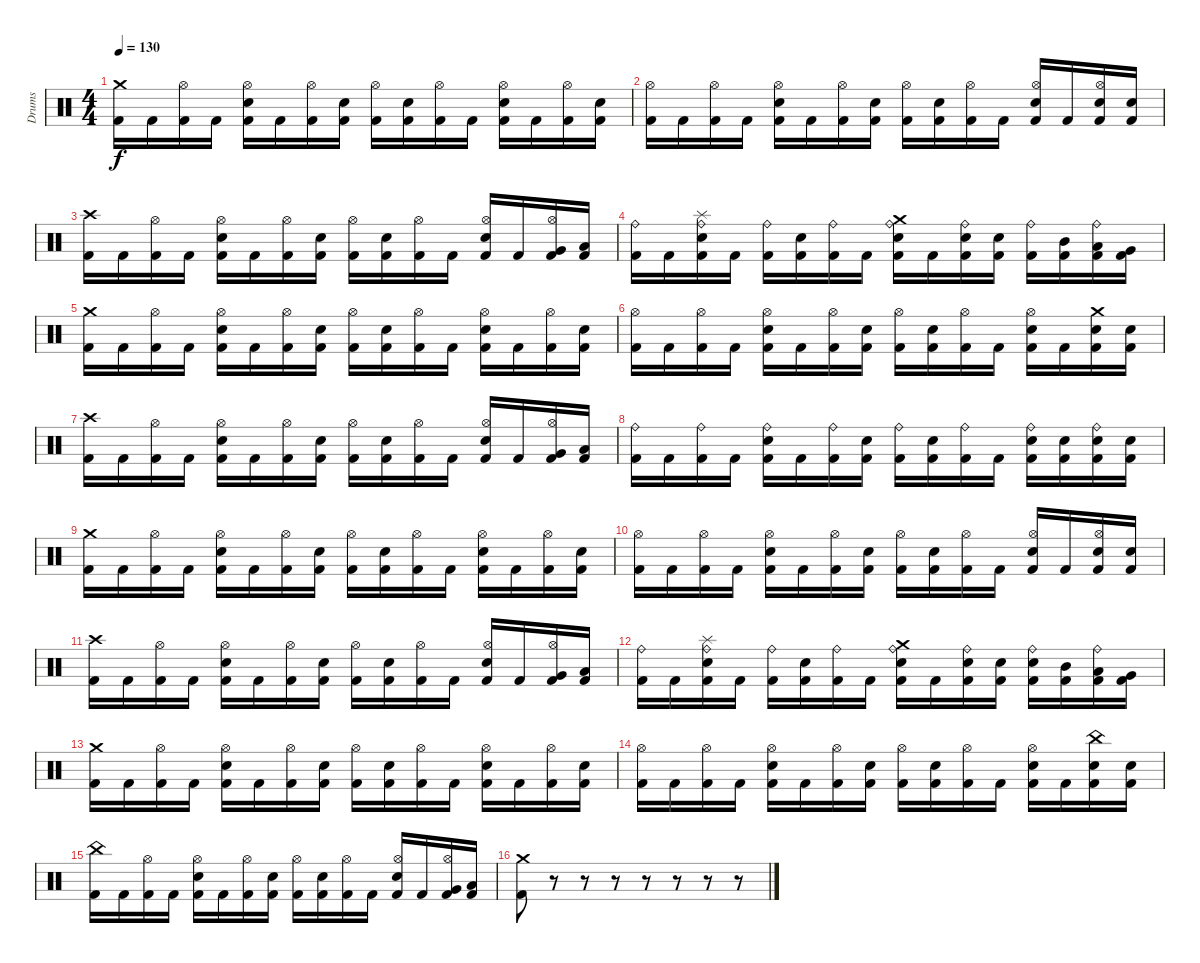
\track ("Drums" "Drums") {instrument percussion}
\staff {score}
\articulation defaults
\ts (4 4)
\tempo 130
\clef neutral
\ks c
("Crash medium (hit)" "Kick (hit) 2").16{dy f} "Kick (hit) 2".16 ("Hi-Hat (open)" "Kick (hit) 2").16 "Kick (hit) 2".16 ("Hi-Hat (open)" "Electric Snare (hit)" "Kick (hit) 2").16 "Kick (hit) 2".16 ("Hi-Hat (open)" "Kick (hit) 2").16 ("Electric Snare (hit)" "Kick (hit) 2").16 ("Hi-Hat (open)" "Kick (hit) 2").16 ("Electric Snare (hit)" "Kick (hit) 2").16 ("Hi-Hat (open)" "Kick (hit) 2").16 "Kick (hit) 2".16 ("Hi-Hat (open)" "Electric Snare (hit)" "Kick (hit) 2").16 "Kick (hit) 2".16 ("Hi-Hat (open)" "Kick (hit) 2").16 ("Electric Snare (hit)" "Kick (hit) 2").16 |
("Hi-Hat (open)" "Kick (hit) 2").16 "Kick (hit) 2".16 ("Hi-Hat (open)" "Kick (hit) 2").16 "Kick (hit) 2".16 ("Hi-Hat (open)" "Electric Snare (hit)" "Kick (hit) 2").16 "Kick (hit) 2".16 ("Hi-Hat (open)" "Kick (hit) 2").16 ("Electric Snare (hit)" "Kick (hit) 2").16 ("Hi-Hat (open)" "Kick (hit) 2").16 ("Electric Snare (hit)" "Kick (hit) 2").16 ("Hi-Hat (open)" "Kick (hit) 2").16 "Kick (hit) 2".16 ("Hi-Hat (open)" "Electric Snare (hit)" "Kick (hit) 2").16 "Kick (hit) 2".16 ("Hi-Hat (open)" "Electric Snare (hit)" "Kick (hit) 2").16 ("Electric Snare (hit)" "Kick (hit) 2").16 |
("Crash high (hit)" "Kick (hit) 2").16 "Kick (hit) 2".16 ("Hi-Hat (open)" "Kick (hit) 2").16 "Kick (hit) 2".16 ("Hi-Hat (open)" "Electric Snare (hit)" "Kick (hit) 2").16 "Kick (hit) 2".16 ("Hi-Hat (open)" "Kick (hit) 2").16 ("Electric Snare (hit)" "Kick (hit) 2").16 ("Hi-Hat (open)" "Kick (hit) 2").16 ("Electric Snare (hit)" "Kick (hit) 2").16 ("Hi-Hat (open)" "Kick (hit) 2").16 "Kick (hit) 2".16 ("Hi-Hat (open)" "Electric Snare (hit)" "Kick (hit) 2").16 "Kick (hit) 2".16 ("Hi-Hat (open)" "Very Low Tom (hit)" "Kick (hit) 2").16 ("Low Floor Tom (hit)" "Kick (hit) 2").16 |
("Ride (bell)" "Kick (hit) 2").16 "Kick (hit) 2".16 ("Ride (bell)" "Electric Snare (hit)" "Splash (hit)" "Kick (hit) 2").16 "Kick (hit) 2".16 ("Ride (bell)" "Kick (hit) 2").16 ("Electric Snare (hit)" "Kick (hit) 2").16 ("Ride (bell)" "Kick (hit) 2").16 "Kick (hit) 2".16 ("Ride (bell)" "Electric Snare (hit)" "Crash medium (hit)" "Kick (hit) 2").16 "Kick (hit) 2".16 ("Ride (bell)" "Electric Snare (hit)" "Kick (hit) 2").16 ("Electric Snare (hit)" "Kick (hit) 2").16 ("Ride (bell)" "Kick (hit) 2").16 ("Mid Tom (hit)" "Kick (hit) 2").16 ("Ride (bell)" "Low Tom (hit)" "Kick (hit) 2").16 ("Very Low Tom (hit)" "Kick (hit) 2").16 |
("Crash medium (hit)" "Kick (hit) 2").16 "Kick (hit) 2".16 ("Hi-Hat (open)" "Kick (hit) 2").16 "Kick (hit) 2".16 ("Hi-Hat (open)" "Electric Snare (hit)" "Kick (hit) 2").16 "Kick (hit) 2".16 ("Hi-Hat (open)" "Kick (hit) 2").16 ("Electric Snare (hit)" "Kick (hit) 2").16 ("Hi-Hat (open)" "Kick (hit) 2").16 ("Electric Snare (hit)" "Kick (hit) 2").16 ("Hi-Hat (open)" "Kick (hit) 2").16 "Kick (hit) 2".16 ("Hi-Hat (open)" "Electric Snare (hit)" "Kick (hit) 2").16 "Kick (hit) 2".16 ("Hi-Hat (open)" "Kick (hit) 2").16 ("Electric Snare (hit)" "Kick (hit) 2").16 |
("Hi-Hat (open)" "Kick (hit) 2").16 "Kick (hit) 2".16 ("Hi-Hat (open)" "Kick (hit) 2").16 "Kick (hit) 2".16 ("Hi-Hat (open)" "Electric Snare (hit)" "Kick (hit) 2").16 "Kick (hit) 2".16 ("Hi-Hat (open)" "Kick (hit) 2").16 ("Electric Snare (hit)" "Kick (hit) 2").16 ("Hi-Hat (open)" "Kick (hit) 2").16 ("Electric Snare (hit)" "Kick (hit) 2").16 ("Hi-Hat (open)" "Kick (hit) 2").16 "Kick (hit) 2".16 ("Hi-Hat (open)" "Electric Snare (hit)" "Kick (hit) 2").16 "Kick (hit) 2".16 ("Crash medium (hit)" "Electric Snare (hit)" "Kick (hit) 2").16 ("Electric Snare (hit)" "Kick (hit) 2").16 |
("Crash high (hit)" "Kick (hit) 2").16 "Kick (hit) 2".16 ("Hi-Hat (open)" "Kick (hit) 2").16 "Kick (hit) 2".16 ("Hi-Hat (open)" "Electric Snare (hit)" "Kick (hit) 2").16 "Kick (hit) 2".16 ("Hi-Hat (open)" "Kick (hit) 2").16 ("Electric Snare (hit)" "Kick (hit) 2").16 ("Hi-Hat (open)" "Kick (hit) 2").16 ("Electric Snare (hit)" "Kick (hit) 2").16 ("Hi-Hat (open)" "Kick (hit) 2").16 "Kick (hit) 2".16 ("Hi-Hat (open)" "Electric Snare (hit)" "Kick (hit) 2").16 "Kick (hit) 2".16 ("Hi-Hat (open)" "Very Low Tom (hit)" "Kick (hit) 2").16 ("Low Floor Tom (hit)" "Kick (hit) 2").16 |
("Ride (bell)" "Kick (hit) 2").16 "Kick (hit) 2".16 ("Ride (bell)" "Kick (hit) 2").16 "Kick (hit) 2".16 ("Ride (bell)" "Electric Snare (hit)" "Kick (hit) 2").16 "Kick (hit) 2".16 ("Ride (bell)" "Kick (hit) 2").16 ("Electric Snare (hit)" "Kick (hit) 2").16 ("Ride (bell)" "Kick (hit) 2").16 ("Electric Snare (hit)" "Kick (hit) 2").16 ("Ride (bell)" "Kick (hit) 2").16 "Kick (hit) 2".16 ("Ride (bell)" "Electric Snare (hit)" "Kick (hit) 2").16 ("Electric Snare (hit)" "Kick (hit) 2").16 ("Ride (bell)" "Electric Snare (hit)" "Kick (hit) 2").16 ("Electric Snare (hit)" "Kick (hit) 2").16 |
("Crash medium (hit)" "Kick (hit) 2").16 "Kick (hit) 2".16 ("Hi-Hat (open)" "Kick (hit) 2").16 "Kick (hit) 2".16 ("Hi-Hat (open)" "Electric Snare (hit)" "Kick (hit) 2").16 "Kick (hit) 2".16 ("Hi-Hat (open)" "Kick (hit) 2").16 ("Electric Snare (hit)" "Kick (hit) 2").16 ("Hi-Hat (open)" "Kick (hit) 2").16 ("Electric Snare (hit)" "Kick (hit) 2").16 ("Hi-Hat (open)" "Kick (hit) 2").16 "Kick (hit) 2".16 ("Hi-Hat (open)" "Electric Snare (hit)" "Kick (hit) 2").16 "Kick (hit) 2".16 ("Hi-Hat (open)" "Kick (hit) 2").16 ("Electric Snare (hit)" "Kick (hit) 2").16 |
("Hi-Hat (open)" "Kick (hit) 2").16 "Kick (hit) 2".16 ("Hi-Hat (open)" "Kick (hit) 2").16 "Kick (hit) 2".16 ("Hi-Hat (open)" "Electric Snare (hit)" "Kick (hit) 2").16 "Kick (hit) 2".16 ("Hi-Hat (open)" "Kick (hit) 2").16 ("Electric Snare (hit)" "Kick (hit) 2").16 ("Hi-Hat (open)" "Kick (hit) 2").16 ("Electric Snare (hit)" "Kick (hit) 2").16 ("Hi-Hat (open)" "Kick (hit) 2").16 "Kick (hit) 2".16 ("Hi-Hat (open)" "Electric Snare (hit)" "Kick (hit) 2").16 "Kick (hit) 2".16 ("Hi-Hat (open)" "Electric Snare (hit)" "Kick (hit) 2").16 ("Electric Snare (hit)" "Kick (hit) 2").16 |
("Crash high (hit)" "Kick (hit) 2").16 "Kick (hit) 2".16 ("Hi-Hat (open)" "Kick (hit) 2").16 "Kick (hit) 2".16 ("Hi-Hat (open)" "Electric Snare (hit)" "Kick (hit) 2").16 "Kick (hit) 2".16 ("Hi-Hat (open)" "Kick (hit) 2").16 ("Electric Snare (hit)" "Kick (hit) 2").16 ("Hi-Hat (open)" "Kick (hit) 2").16 ("Electric Snare (hit)" "Kick (hit) 2").16 ("Hi-Hat (open)" "Kick (hit) 2").16 "Kick (hit) 2".16 ("Hi-Hat (open)" "Electric Snare (hit)" "Kick (hit) 2").16 "Kick (hit) 2".16 ("Hi-Hat (open)" "Very Low Tom (hit)" "Kick (hit) 2").16 ("Low Floor Tom (hit)" "Kick (hit) 2").16 |
("Ride (bell)" "Kick (hit) 2").16 "Kick (hit) 2".16 ("Ride (bell)" "Electric Snare (hit)" "Splash (hit)" "Kick (hit) 2").16 "Kick (hit) 2".16 ("Ride (bell)" "Kick (hit) 2").16 ("Electric Snare (hit)" "Kick (hit) 2").16 ("Ride (bell)" "Kick (hit) 2").16 "Kick (hit) 2".16 ("Ride (bell)" "Electric Snare (hit)" "Crash medium (hit)" "Kick (hit) 2").16 "Kick (hit) 2".16 ("Ride (bell)" "Electric Snare (hit)" "Kick (hit) 2").16 ("Electric Snare (hit)" "Kick (hit) 2").16 ("Ride (bell)" "Electric Snare (hit)" "Kick (hit) 2").16 ("Mid Tom (hit)" "Kick (hit) 2").16 ("Ride (bell)" "Low Tom (hit)" "Kick (hit) 2").16 ("Very Low Tom (hit)" "Kick (hit) 2").16 |
("Crash medium (hit)" "Kick (hit) 2").16 "Kick (hit) 2".16 ("Hi-Hat (open)" "Kick (hit) 2").16 "Kick (hit) 2".16 ("Hi-Hat (open)" "Electric Snare (hit)" "Kick (hit) 2").16 "Kick (hit) 2".16 ("Hi-Hat (open)" "Kick (hit) 2").16 ("Electric Snare (hit)" "Kick (hit) 2").16 ("Hi-Hat (open)" "Kick (hit) 2").16 ("Electric Snare (hit)" "Kick (hit) 2").16 ("Hi-Hat (open)" "Kick (hit) 2").16 "Kick (hit) 2".16 ("Hi-Hat (open)" "Electric Snare (hit)" "Kick (hit) 2").16 "Kick (hit) 2".16 ("Hi-Hat (open)" "Kick (hit) 2").16 ("Electric Snare (hit)" "Kick (hit) 2").16 |
("Hi-Hat (open)" "Kick (hit) 2").16 "Kick (hit) 2".16 ("Hi-Hat (open)" "Kick (hit) 2").16 "Kick (hit) 2".16 ("Hi-Hat (open)" "Electric Snare (hit)" "Kick (hit) 2").16 "Kick (hit) 2".16 ("Hi-Hat (open)" "Kick (hit) 2").16 ("Electric Snare (hit)" "Kick (hit) 2").16 ("Hi-Hat (open)" "Kick (hit) 2").16 ("Electric Snare (hit)" "Kick (hit) 2").16 ("Hi-Hat (open)" "Kick (hit) 2").16 "Kick (hit) 2".16 ("Hi-Hat (open)" "Electric Snare (hit)" "Kick (hit) 2").16 "Kick (hit) 2".16 ("China (hit)" "Electric Snare (hit)" "Kick (hit) 2").16 ("Electric Snare (hit)" "Kick (hit) 2").16 |
("China (hit)" "Kick (hit) 2").16 "Kick (hit) 2".16 ("Hi-Hat (open)" "Kick (hit) 2").16 "Kick (hit) 2".16 ("Hi-Hat (open)" "Electric Snare (hit)" "Kick (hit) 2").16 "Kick (hit) 2".16 ("Hi-Hat (open)" "Kick (hit) 2").16 ("Electric Snare (hit)" "Kick (hit) 2").16 ("Hi-Hat (open)" "Kick (hit) 2").16 ("Electric Snare (hit)" "Kick (hit) 2").16 ("Hi-Hat (open)" "Kick (hit) 2").16 "Kick (hit) 2".16 ("Hi-Hat (open)" "Electric Snare (hit)" "Kick (hit) 2").16 "Kick (hit) 2".16 ("Hi-Hat (open)" "Very Low Tom (hit)" "Kick (hit) 2").16 ("Low Floor Tom (hit)" "Kick (hit) 2").16 |
("Crash medium (hit)" "Kick (hit) 2").8 r.8 r.8 r.8 r.8 r.8 r.8 r.8
